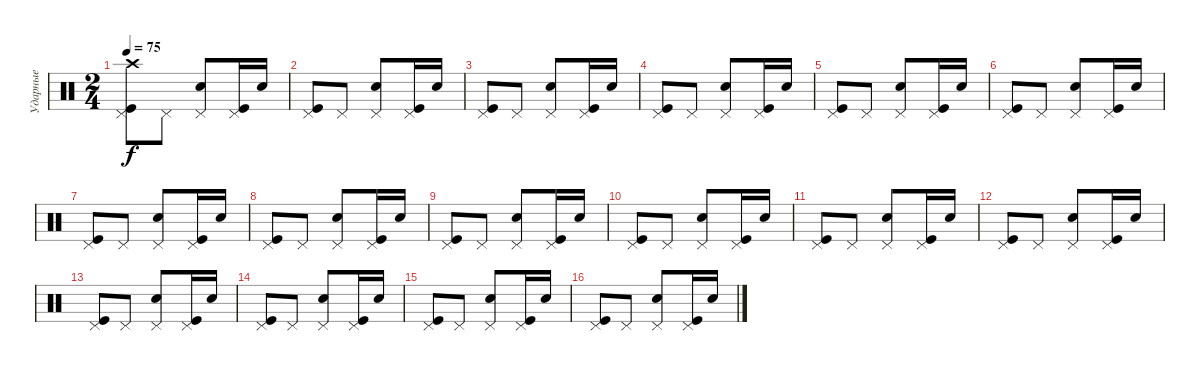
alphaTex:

\track ("Ударные" "Ударные") {instrument percussion}
\staff {score}
\articulation defaults
\ts (2 4)
\tempo 75
\clef neutral
\ks c
("Pedal Hi-Hat (hit)" "Kick (hit)" "Crash high (hit)").8{dy f} "Pedal Hi-Hat (hit)".8 ("Pedal Hi-Hat (hit)" "Snare (hit) 2").8 ("Pedal Hi-Hat (hit)" "Kick (hit)").16 "Snare (hit) 2".16 |
("Pedal Hi-Hat (hit)" "Kick (hit)").8 "Pedal Hi-Hat (hit)".8 ("Pedal Hi-Hat (hit)" "Snare (hit) 2").8 ("Pedal Hi-Hat (hit)" "Kick (hit)").16 "Snare (hit) 2".16 |
("Pedal Hi-Hat (hit)" "Kick (hit)").8 "Pedal Hi-Hat (hit)".8 ("Pedal Hi-Hat (hit)" "Snare (hit) 2").8 ("Pedal Hi-Hat (hit)" "Kick (hit)").16 "Snare (hit) 2".16 |
("Pedal Hi-Hat (hit)" "Kick (hit)").8 "Pedal Hi-Hat (hit)".8 ("Pedal Hi-Hat (hit)" "Snare (hit) 2").8 ("Pedal Hi-Hat (hit)" "Kick (hit)").16 "Snare (hit) 2".16 |
("Pedal Hi-Hat (hit)" "Kick (hit)").8 "Pedal Hi-Hat (hit)".8 ("Pedal Hi-Hat (hit)" "Snare (hit) 2").8 ("Pedal Hi-Hat (hit)" "Kick (hit)").16 "Snare (hit) 2".16 |
("Pedal Hi-Hat (hit)" "Kick (hit)").8 "Pedal Hi-Hat (hit)".8 ("Pedal Hi-Hat (hit)" "Snare (hit) 2").8 ("Pedal Hi-Hat (hit)" "Kick (hit)").16 "Snare (hit) 2".16 |
("Pedal Hi-Hat (hit)" "Kick (hit)").8 "Pedal Hi-Hat (hit)".8 ("Pedal Hi-Hat (hit)" "Snare (hit) 2").8 ("Pedal Hi-Hat (hit)" "Kick (hit)").16 "Snare (hit) 2".16 |
("Pedal Hi-Hat (hit)" "Kick (hit)").8 "Pedal Hi-Hat (hit)".8 ("Pedal Hi-Hat (hit)" "Snare (hit) 2").8 ("Pedal Hi-Hat (hit)" "Kick (hit)").16 "Snare (hit) 2".16 |
("Pedal Hi-Hat (hit)" "Kick (hit)").8 "Pedal Hi-Hat (hit)".8 ("Pedal Hi-Hat (hit)" "Snare (hit) 2").8 ("Pedal Hi-Hat (hit)" "Kick (hit)").16 "Snare (hit) 2".16 |
("Pedal Hi-Hat (hit)" "Kick (hit)").8 "Pedal Hi-Hat (hit)".8 ("Pedal Hi-Hat (hit)" "Snare (hit) 2").8 ("Pedal Hi-Hat (hit)" "Kick (hit)").16 "Snare (hit) 2".16 |
("Pedal Hi-Hat (hit)" "Kick (hit)").8 "Pedal Hi-Hat (hit)".8 ("Pedal Hi-Hat (hit)" "Snare (hit) 2").8 ("Pedal Hi-Hat (hit)" "Kick (hit)").16 "Snare (hit) 2".16 |
("Pedal Hi-Hat (hit)" "Kick (hit)").8 "Pedal Hi-Hat (hit)".8 ("Pedal Hi-Hat (hit)" "Snare (hit) 2").8 ("Pedal Hi-Hat (hit)" "Kick (hit)").16 "Snare (hit) 2".16 |
("Pedal Hi-Hat (hit)" "Kick (hit)").8 "Pedal Hi-Hat (hit)".8 ("Pedal Hi-Hat (hit)" "Snare (hit) 2").8 ("Pedal Hi-Hat (hit)" "Kick (hit)").16 "Snare (hit) 2".16 |
("Pedal Hi-Hat (hit)" "Kick (hit)").8 "Pedal Hi-Hat (hit)".8 ("Pedal Hi-Hat (hit)" "Snare (hit) 2").8 ("Pedal Hi-Hat (hit)" "Kick (hit)").16 "Snare (hit) 2".16 |
("Pedal Hi-Hat (hit)" "Kick (hit)").8 "Pedal Hi-Hat (hit)".8 ("Pedal Hi-Hat (hit)" "Snare (hit) 2").8 ("Pedal Hi-Hat (hit)" "Kick (hit)").16 "Snare (hit) 2".16 |
("Pedal Hi-Hat (hit)" "Kick (hit)").8 "Pedal Hi-Hat (hit)".8 ("Pedal Hi-Hat (hit)" "Snare (hit) 2").8 ("Pedal Hi-Hat (hit)" "Kick (hit)").16 "Snare (hit) 2".16
